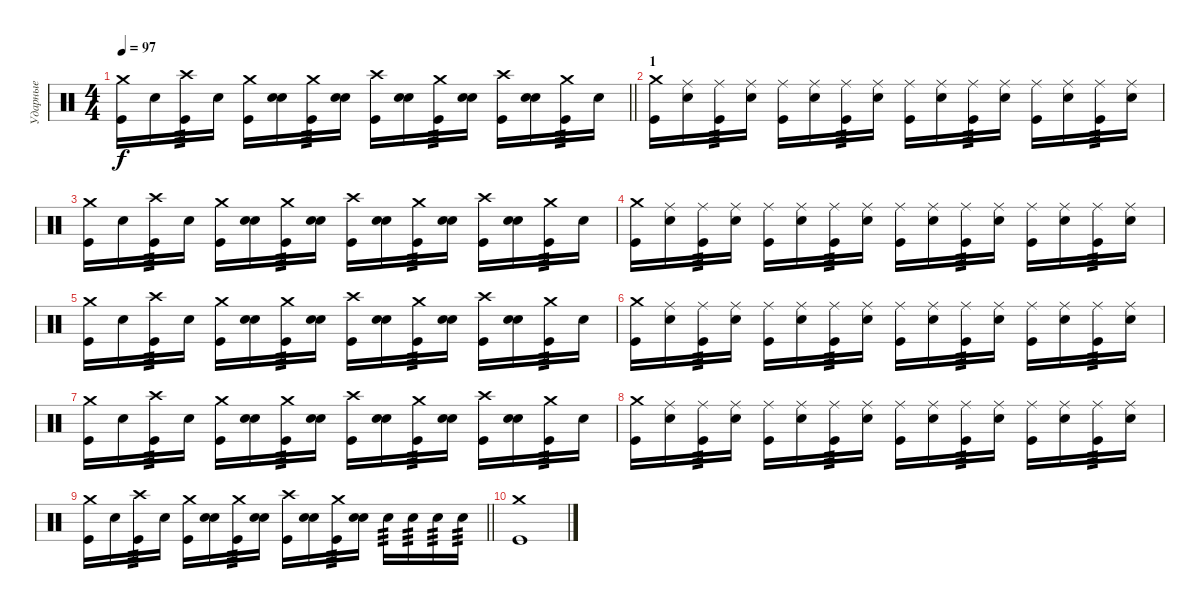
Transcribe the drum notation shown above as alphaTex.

\track ("Ударные" "Ударные") {instrument percussion}
\staff {score}
\articulation defaults
\ts (4 4)
\tempo 97
\clef neutral
\barLineRight lightlight
\ks c
("Kick (hit)" "Crash medium (hit)").16{dy f} "Electric Snare (hit)".16 ("Kick (hit)" "Crash high (hit)").16{tp 3} "Electric Snare (hit)".16 ("Kick (hit)" "Crash medium (hit)").16 ("Electric Snare (hit)" "Snare (hit)").16 ("Kick (hit)" "Crash medium (hit)").16{tp 3} ("Electric Snare (hit)" "Snare (hit)").16 ("Kick (hit)" "Crash high (hit)").16 ("Electric Snare (hit)" "Snare (hit)").16 ("Kick (hit)" "Crash medium (hit)").16{tp 3} ("Electric Snare (hit)" "Snare (hit)").16 ("Kick (hit)" "Crash high (hit)").16 ("Electric Snare (hit)" "Snare (hit)").16 ("Kick (hit)" "Crash medium (hit)").16{tp 3} "Electric Snare (hit)".16 |
\section ("" "1")
("Kick (hit)" "Crash medium (hit)").16 ("Electric Snare (hit)" "Ride (middle)").16 ("Kick (hit)" "Ride (middle)").16{tp 3} ("Electric Snare (hit)" "Ride (middle)").16 ("Kick (hit)" "Ride (middle)").16 ("Electric Snare (hit)" "Ride (middle)").16 ("Kick (hit)" "Ride (middle)").16{tp 3} ("Electric Snare (hit)" "Ride (middle)").16 ("Kick (hit)" "Ride (middle)").16 ("Electric Snare (hit)" "Ride (middle)").16 ("Kick (hit)" "Ride (middle)").16{tp 3} ("Electric Snare (hit)" "Ride (middle)").16 ("Kick (hit)" "Ride (middle)").16 ("Electric Snare (hit)" "Ride (middle)").16 ("Kick (hit)" "Ride (middle)").16{tp 3} ("Electric Snare (hit)" "Ride (middle)").16 |
("Kick (hit)" "Crash medium (hit)").16 "Electric Snare (hit)".16 ("Kick (hit)" "Crash high (hit)").16{tp 3} "Electric Snare (hit)".16 ("Kick (hit)" "Crash medium (hit)").16 ("Electric Snare (hit)" "Snare (hit)").16 ("Kick (hit)" "Crash medium (hit)").16{tp 3} ("Electric Snare (hit)" "Snare (hit)").16 ("Kick (hit)" "Crash high (hit)").16 ("Electric Snare (hit)" "Snare (hit)").16 ("Kick (hit)" "Crash medium (hit)").16{tp 3} ("Electric Snare (hit)" "Snare (hit)").16 ("Kick (hit)" "Crash high (hit)").16 ("Electric Snare (hit)" "Snare (hit)").16 ("Kick (hit)" "Crash medium (hit)").16{tp 3} "Electric Snare (hit)".16 |
("Kick (hit)" "Crash medium (hit)").16 ("Electric Snare (hit)" "Ride (middle)").16 ("Kick (hit)" "Ride (middle)").16{tp 3} ("Electric Snare (hit)" "Ride (middle)").16 ("Kick (hit)" "Ride (middle)").16 ("Electric Snare (hit)" "Ride (middle)").16 ("Kick (hit)" "Ride (middle)").16{tp 3} ("Electric Snare (hit)" "Ride (middle)").16 ("Kick (hit)" "Ride (middle)").16 ("Electric Snare (hit)" "Ride (middle)").16 ("Kick (hit)" "Ride (middle)").16{tp 3} ("Electric Snare (hit)" "Ride (middle)").16 ("Kick (hit)" "Ride (middle)").16 ("Electric Snare (hit)" "Ride (middle)").16 ("Kick (hit)" "Ride (middle)").16{tp 3} ("Electric Snare (hit)" "Ride (middle)").16 |
("Kick (hit)" "Crash medium (hit)").16 "Electric Snare (hit)".16 ("Kick (hit)" "Crash high (hit)").16{tp 3} "Electric Snare (hit)".16 ("Kick (hit)" "Crash medium (hit)").16 ("Electric Snare (hit)" "Snare (hit)").16 ("Kick (hit)" "Crash medium (hit)").16{tp 3} ("Electric Snare (hit)" "Snare (hit)").16 ("Kick (hit)" "Crash high (hit)").16 ("Electric Snare (hit)" "Snare (hit)").16 ("Kick (hit)" "Crash medium (hit)").16{tp 3} ("Electric Snare (hit)" "Snare (hit)").16 ("Kick (hit)" "Crash high (hit)").16 ("Electric Snare (hit)" "Snare (hit)").16 ("Kick (hit)" "Crash medium (hit)").16{tp 3} "Electric Snare (hit)".16 |
("Kick (hit)" "Crash medium (hit)").16 ("Electric Snare (hit)" "Ride (middle)").16 ("Kick (hit)" "Ride (middle)").16{tp 3} ("Electric Snare (hit)" "Ride (middle)").16 ("Kick (hit)" "Ride (middle)").16 ("Electric Snare (hit)" "Ride (middle)").16 ("Kick (hit)" "Ride (middle)").16{tp 3} ("Electric Snare (hit)" "Ride (middle)").16 ("Kick (hit)" "Ride (middle)").16 ("Electric Snare (hit)" "Ride (middle)").16 ("Kick (hit)" "Ride (middle)").16{tp 3} ("Electric Snare (hit)" "Ride (middle)").16 ("Kick (hit)" "Ride (middle)").16 ("Electric Snare (hit)" "Ride (middle)").16 ("Kick (hit)" "Ride (middle)").16{tp 3} ("Electric Snare (hit)" "Ride (middle)").16 |
("Kick (hit)" "Crash medium (hit)").16 "Electric Snare (hit)".16 ("Kick (hit)" "Crash high (hit)").16{tp 3} "Electric Snare (hit)".16 ("Kick (hit)" "Crash medium (hit)").16 ("Electric Snare (hit)" "Snare (hit)").16 ("Kick (hit)" "Crash medium (hit)").16{tp 3} ("Electric Snare (hit)" "Snare (hit)").16 ("Kick (hit)" "Crash high (hit)").16 ("Electric Snare (hit)" "Snare (hit)").16 ("Kick (hit)" "Crash medium (hit)").16{tp 3} ("Electric Snare (hit)" "Snare (hit)").16 ("Kick (hit)" "Crash high (hit)").16 ("Electric Snare (hit)" "Snare (hit)").16 ("Kick (hit)" "Crash medium (hit)").16{tp 3} "Electric Snare (hit)".16 |
("Kick (hit)" "Crash medium (hit)").16 ("Electric Snare (hit)" "Ride (middle)").16 ("Kick (hit)" "Ride (middle)").16{tp 3} ("Electric Snare (hit)" "Ride (middle)").16 ("Kick (hit)" "Ride (middle)").16 ("Electric Snare (hit)" "Ride (middle)").16 ("Kick (hit)" "Ride (middle)").16{tp 3} ("Electric Snare (hit)" "Ride (middle)").16 ("Kick (hit)" "Ride (middle)").16 ("Electric Snare (hit)" "Ride (middle)").16 ("Kick (hit)" "Ride (middle)").16{tp 3} ("Electric Snare (hit)" "Ride (middle)").16 ("Kick (hit)" "Ride (middle)").16 ("Electric Snare (hit)" "Ride (middle)").16 ("Kick (hit)" "Ride (middle)").16{tp 3} ("Electric Snare (hit)" "Ride (middle)").16 |
\barLineRight lightlight
("Kick (hit)" "Crash medium (hit)").16 "Electric Snare (hit)".16 ("Kick (hit)" "Crash high (hit)").16{tp 3} "Electric Snare (hit)".16 ("Kick (hit)" "Crash medium (hit)").16 ("Electric Snare (hit)" "Snare (hit)").16 ("Kick (hit)" "Crash medium (hit)").16{tp 3} ("Electric Snare (hit)" "Snare (hit)").16 ("Kick (hit)" "Crash high (hit)").16 ("Electric Snare (hit)" "Snare (hit)").16 ("Kick (hit)" "Crash medium (hit)").16{tp 3} ("Electric Snare (hit)" "Snare (hit)").16 "Electric Snare (hit)".16{tp 3} "Electric Snare (hit)".16{tp 3} "Electric Snare (hit)".16{tp 3} "Electric Snare (hit)".16{tp 3} |
("Kick (hit)" "Crash medium (hit)").1
